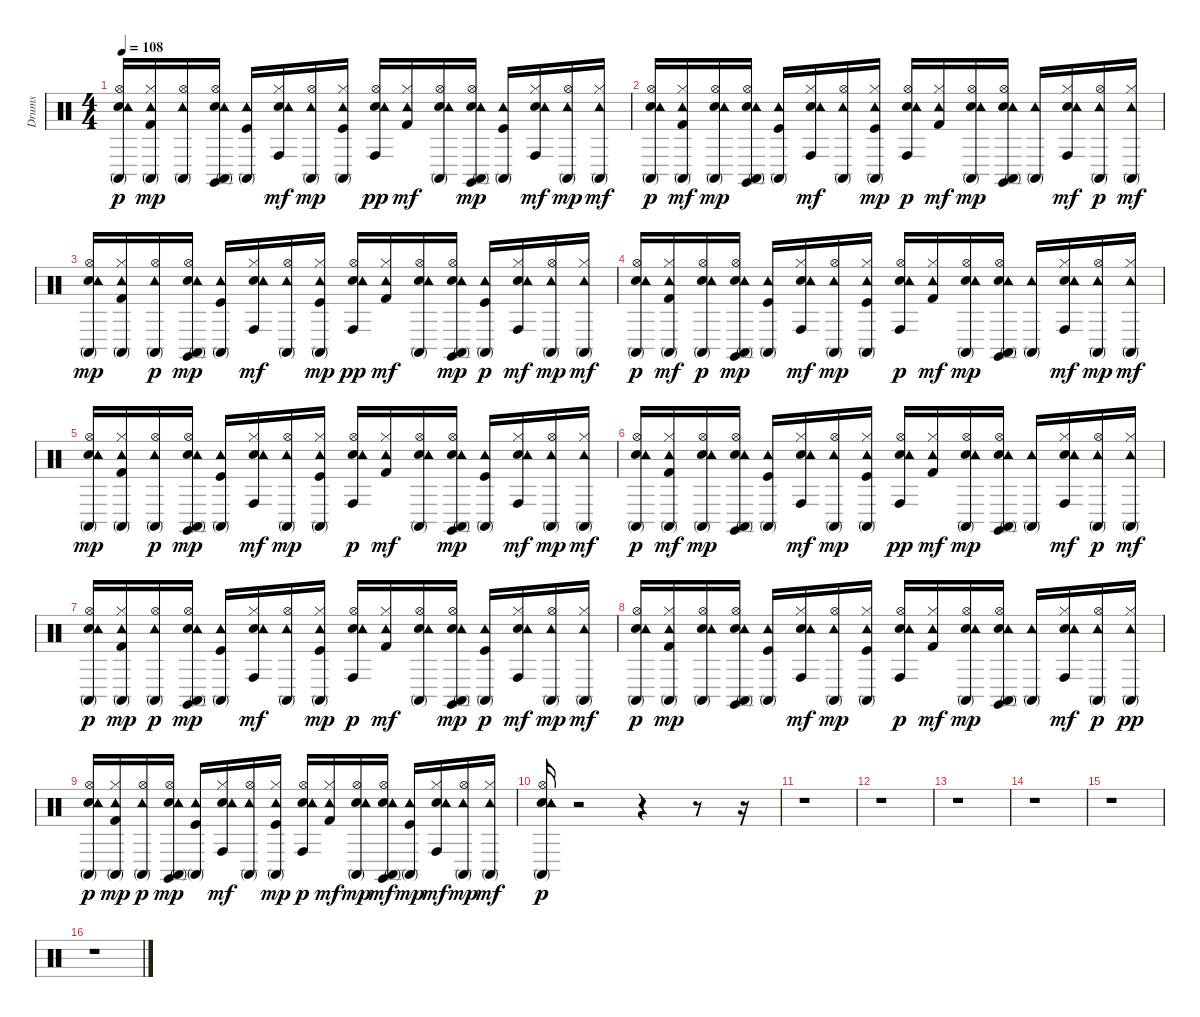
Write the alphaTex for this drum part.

\track ("Drums" "Drums") {instrument percussion}
\staff {score}
\articulation defaults
\ts (4 4)
\tempo 108
\clef neutral
\ks c
("Snare (hit) 2" "Hi-Hat (open)" "Tambourine (hit)" "Conga high (mute)").16{dy p} ("Kick (hit) 2" "Hi-Hat (closed)" "Tambourine (hit)" "Conga high (mute)").16{dy mp} ("Hi-Hat (open)" "Tambourine (hit)" "Conga high (mute)").16 ("Snare (hit) 2" "Hi-Hat (open)" "Tambourine (hit)" "Conga high (mute)" "Claves (hit)").16 ("Kick (hit)" "Tambourine (hit)" "Conga high (mute)").16 ("Snare (hit) 2" "Hi-Hat (closed)" "Tambourine (hit)" "Conga high (hit)").16{dy mf} ("Hi-Hat (open)" "Tambourine (hit)" "Conga high (mute)").16{dy mp} ("Kick (hit)" "Hi-Hat (closed)" "Tambourine (hit)" "Conga high (mute)").16 ("Snare (hit) 2" "Hi-Hat (open)" "Tambourine (hit)" "Conga high (hit)").16{dy pp} ("Kick (hit) 2" "Hi-Hat (closed)" "Tambourine (hit)").16{dy mf} ("Snare (hit) 2" "Hi-Hat (open)" "Tambourine (hit)" "Conga high (mute)").16 ("Snare (hit) 2" "Hi-Hat (open)" "Tambourine (hit)" "Conga high (mute)" "Claves (hit)").16{dy mp} ("Kick (hit)" "Tambourine (hit)" "Conga high (mute)").16 ("Snare (hit) 2" "Hi-Hat (closed)" "Tambourine (hit)" "Conga high (hit)").16{dy mf} ("Hi-Hat (open)" "Tambourine (hit)" "Conga high (mute)").16{dy mp} ("Hi-Hat (closed)" "Tambourine (hit)" "Conga high (mute)").16{dy mf} |
("Snare (hit) 2" "Hi-Hat (open)" "Tambourine (hit)" "Conga high (mute)").16{dy p} ("Kick (hit) 2" "Hi-Hat (closed)" "Tambourine (hit)" "Conga high (mute)").16{dy mf} ("Snare (hit) 2" "Hi-Hat (open)" "Tambourine (hit)" "Conga high (mute)").16{dy mp} ("Snare (hit) 2" "Hi-Hat (open)" "Tambourine (hit)" "Conga high (mute)" "Claves (hit)").16 ("Kick (hit)" "Tambourine (hit)" "Conga high (mute)").16 ("Snare (hit) 2" "Hi-Hat (closed)" "Tambourine (hit)" "Conga high (hit)").16{dy mf} ("Hi-Hat (open)" "Tambourine (hit)" "Conga high (mute)").16 ("Kick (hit)" "Hi-Hat (closed)" "Tambourine (hit)" "Conga high (mute)").16{dy mp} ("Snare (hit) 2" "Hi-Hat (open)" "Tambourine (hit)" "Conga high (hit)").16{dy p} ("Kick (hit) 2" "Hi-Hat (closed)" "Tambourine (hit)").16{dy mf} ("Snare (hit) 2" "Hi-Hat (open)" "Tambourine (hit)" "Conga high (mute)").16{dy mp} ("Snare (hit) 2" "Hi-Hat (open)" "Tambourine (hit)" "Conga high (mute)" "Claves (hit)").16 ("Tambourine (hit)" "Conga high (mute)").16 ("Snare (hit) 2" "Hi-Hat (closed)" "Tambourine (hit)" "Conga high (hit)").16{dy mf} ("Hi-Hat (open)" "Tambourine (hit)" "Conga high (mute)").16{dy p} ("Hi-Hat (closed)" "Tambourine (hit)" "Conga high (mute)").16{dy mf} |
("Snare (hit) 2" "Hi-Hat (open)" "Tambourine (hit)" "Conga high (mute)").16{dy mp} ("Kick (hit) 2" "Hi-Hat (closed)" "Tambourine (hit)" "Conga high (mute)").16 ("Hi-Hat (open)" "Tambourine (hit)" "Conga high (mute)").16{dy p} ("Snare (hit) 2" "Hi-Hat (open)" "Tambourine (hit)" "Conga high (mute)" "Claves (hit)").16{dy mp} ("Kick (hit)" "Tambourine (hit)" "Conga high (mute)").16 ("Snare (hit) 2" "Hi-Hat (closed)" "Tambourine (hit)" "Conga high (hit)").16{dy mf} ("Hi-Hat (open)" "Tambourine (hit)" "Conga high (mute)").16 ("Kick (hit)" "Hi-Hat (closed)" "Tambourine (hit)" "Conga high (mute)").16{dy mp} ("Snare (hit) 2" "Hi-Hat (open)" "Tambourine (hit)" "Conga high (hit)").16{dy pp} ("Kick (hit) 2" "Hi-Hat (closed)" "Tambourine (hit)").16{dy mf} ("Snare (hit) 2" "Hi-Hat (open)" "Tambourine (hit)" "Conga high (mute)").16 ("Snare (hit) 2" "Hi-Hat (open)" "Tambourine (hit)" "Conga high (mute)" "Claves (hit)").16{dy mp} ("Kick (hit)" "Tambourine (hit)" "Conga high (mute)").16{dy p} ("Snare (hit) 2" "Hi-Hat (closed)" "Tambourine (hit)" "Conga high (hit)").16{dy mf} ("Hi-Hat (open)" "Tambourine (hit)" "Conga high (mute)").16{dy mp} ("Hi-Hat (closed)" "Tambourine (hit)" "Conga high (mute)").16{dy mf} |
("Snare (hit) 2" "Hi-Hat (open)" "Tambourine (hit)" "Conga high (mute)").16{dy p} ("Kick (hit) 2" "Hi-Hat (closed)" "Tambourine (hit)" "Conga high (mute)").16{dy mf} ("Snare (hit) 2" "Hi-Hat (open)" "Tambourine (hit)" "Conga high (mute)").16{dy p} ("Snare (hit) 2" "Hi-Hat (open)" "Tambourine (hit)" "Conga high (mute)" "Claves (hit)").16{dy mp} ("Kick (hit)" "Tambourine (hit)" "Conga high (mute)").16 ("Snare (hit) 2" "Hi-Hat (closed)" "Tambourine (hit)" "Conga high (hit)").16{dy mf} ("Hi-Hat (open)" "Tambourine (hit)" "Conga high (mute)").16{dy mp} ("Kick (hit)" "Hi-Hat (closed)" "Tambourine (hit)" "Conga high (mute)").16 ("Snare (hit) 2" "Hi-Hat (open)" "Tambourine (hit)" "Conga high (hit)").16{dy p} ("Kick (hit) 2" "Hi-Hat (closed)" "Tambourine (hit)").16{dy mf} ("Snare (hit) 2" "Hi-Hat (open)" "Tambourine (hit)" "Conga high (mute)").16{dy mp} ("Snare (hit) 2" "Hi-Hat (open)" "Tambourine (hit)" "Conga high (mute)" "Claves (hit)").16 ("Tambourine (hit)" "Conga high (mute)").16 ("Snare (hit) 2" "Hi-Hat (closed)" "Tambourine (hit)" "Conga high (hit)").16{dy mf} ("Hi-Hat (open)" "Tambourine (hit)" "Conga high (mute)").16{dy mp} ("Hi-Hat (closed)" "Tambourine (hit)" "Conga high (mute)").16{dy mf} |
("Snare (hit) 2" "Hi-Hat (open)" "Tambourine (hit)" "Conga high (mute)").16{dy mp} ("Kick (hit) 2" "Hi-Hat (closed)" "Tambourine (hit)" "Conga high (mute)").16 ("Hi-Hat (open)" "Tambourine (hit)" "Conga high (mute)").16{dy p} ("Snare (hit) 2" "Hi-Hat (open)" "Tambourine (hit)" "Conga high (mute)" "Claves (hit)").16{dy mp} ("Kick (hit)" "Tambourine (hit)" "Conga high (mute)").16 ("Snare (hit) 2" "Hi-Hat (closed)" "Tambourine (hit)" "Conga high (hit)").16{dy mf} ("Hi-Hat (open)" "Tambourine (hit)" "Conga high (mute)").16{dy mp} ("Kick (hit)" "Hi-Hat (closed)" "Tambourine (hit)" "Conga high (mute)").16 ("Snare (hit) 2" "Hi-Hat (open)" "Tambourine (hit)" "Conga high (hit)").16{dy p} ("Kick (hit) 2" "Hi-Hat (closed)" "Tambourine (hit)").16{dy mf} ("Snare (hit) 2" "Hi-Hat (open)" "Tambourine (hit)" "Conga high (mute)").16 ("Snare (hit) 2" "Hi-Hat (open)" "Tambourine (hit)" "Conga high (mute)" "Claves (hit)").16{dy mp} ("Kick (hit)" "Tambourine (hit)" "Conga high (mute)").16 ("Snare (hit) 2" "Hi-Hat (closed)" "Tambourine (hit)" "Conga high (hit)").16{dy mf} ("Hi-Hat (open)" "Tambourine (hit)" "Conga high (mute)").16{dy mp} ("Hi-Hat (closed)" "Tambourine (hit)" "Conga high (mute)").16{dy mf} |
("Snare (hit) 2" "Hi-Hat (open)" "Tambourine (hit)" "Conga high (mute)").16{dy p} ("Kick (hit) 2" "Hi-Hat (closed)" "Tambourine (hit)" "Conga high (mute)").16{dy mf} ("Snare (hit) 2" "Hi-Hat (open)" "Tambourine (hit)" "Conga high (mute)").16{dy mp} ("Snare (hit) 2" "Hi-Hat (open)" "Tambourine (hit)" "Conga high (mute)" "Claves (hit)").16 ("Kick (hit)" "Tambourine (hit)" "Conga high (mute)").16 ("Snare (hit) 2" "Hi-Hat (closed)" "Tambourine (hit)" "Conga high (hit)").16{dy mf} ("Hi-Hat (open)" "Tambourine (hit)" "Conga high (mute)").16{dy mp} ("Kick (hit)" "Hi-Hat (closed)" "Tambourine (hit)" "Conga high (mute)").16 ("Snare (hit) 2" "Hi-Hat (open)" "Tambourine (hit)" "Conga high (hit)").16{dy pp} ("Kick (hit) 2" "Hi-Hat (closed)" "Tambourine (hit)").16{dy mf} ("Snare (hit) 2" "Hi-Hat (open)" "Tambourine (hit)" "Conga high (mute)").16{dy mp} ("Snare (hit) 2" "Hi-Hat (open)" "Tambourine (hit)" "Conga high (mute)" "Claves (hit)").16 ("Tambourine (hit)" "Conga high (mute)").16 ("Snare (hit) 2" "Hi-Hat (closed)" "Tambourine (hit)" "Conga high (hit)").16{dy mf} ("Hi-Hat (open)" "Tambourine (hit)" "Conga high (mute)").16{dy p} ("Hi-Hat (closed)" "Tambourine (hit)" "Conga high (mute)").16{dy mf} |
("Snare (hit) 2" "Hi-Hat (open)" "Tambourine (hit)" "Conga high (mute)").16{dy p} ("Kick (hit) 2" "Hi-Hat (closed)" "Tambourine (hit)" "Conga high (mute)").16{dy mp} ("Hi-Hat (open)" "Tambourine (hit)" "Conga high (mute)").16{dy p} ("Snare (hit) 2" "Hi-Hat (open)" "Tambourine (hit)" "Conga high (mute)" "Claves (hit)").16{dy mp} ("Kick (hit)" "Tambourine (hit)" "Conga high (mute)").16 ("Snare (hit) 2" "Hi-Hat (closed)" "Tambourine (hit)" "Conga high (hit)").16{dy mf} ("Hi-Hat (open)" "Tambourine (hit)" "Conga high (mute)").16 ("Kick (hit)" "Hi-Hat (closed)" "Tambourine (hit)" "Conga high (mute)").16{dy mp} ("Snare (hit) 2" "Hi-Hat (open)" "Tambourine (hit)" "Conga high (hit)").16{dy p} ("Kick (hit) 2" "Hi-Hat (closed)" "Tambourine (hit)").16{dy mf} ("Snare (hit) 2" "Hi-Hat (open)" "Tambourine (hit)" "Conga high (mute)").16 ("Snare (hit) 2" "Hi-Hat (open)" "Tambourine (hit)" "Conga high (mute)" "Claves (hit)").16{dy mp} ("Kick (hit)" "Tambourine (hit)" "Conga high (mute)").16{dy p} ("Snare (hit) 2" "Hi-Hat (closed)" "Tambourine (hit)" "Conga high (hit)").16{dy mf} ("Hi-Hat (open)" "Tambourine (hit)" "Conga high (mute)").16{dy mp} ("Hi-Hat (closed)" "Tambourine (hit)" "Conga high (mute)").16{dy mf} |
("Snare (hit) 2" "Hi-Hat (open)" "Tambourine (hit)" "Conga high (mute)").16{dy p} ("Kick (hit) 2" "Hi-Hat (closed)" "Tambourine (hit)" "Conga high (mute)").16{dy mp} ("Snare (hit) 2" "Hi-Hat (open)" "Tambourine (hit)" "Conga high (mute)").16 ("Snare (hit) 2" "Hi-Hat (open)" "Tambourine (hit)" "Conga high (mute)" "Claves (hit)").16 ("Kick (hit)" "Tambourine (hit)" "Conga high (mute)").16 ("Snare (hit) 2" "Hi-Hat (closed)" "Tambourine (hit)" "Conga high (hit)").16{dy mf} ("Hi-Hat (open)" "Tambourine (hit)" "Conga high (mute)").16{dy mp} ("Kick (hit)" "Hi-Hat (closed)" "Tambourine (hit)" "Conga high (mute)").16 ("Snare (hit) 2" "Hi-Hat (open)" "Tambourine (hit)" "Conga high (hit)").16{dy p} ("Kick (hit) 2" "Hi-Hat (closed)" "Tambourine (hit)").16{dy mf} ("Snare (hit) 2" "Hi-Hat (open)" "Tambourine (hit)" "Conga high (mute)").16{dy mp} ("Snare (hit) 2" "Hi-Hat (open)" "Tambourine (hit)" "Conga high (mute)" "Claves (hit)").16 ("Tambourine (hit)" "Conga high (mute)").16 ("Snare (hit) 2" "Hi-Hat (closed)" "Tambourine (hit)" "Conga high (hit)").16{dy mf} ("Hi-Hat (open)" "Tambourine (hit)" "Conga high (mute)").16{dy p} ("Hi-Hat (closed)" "Tambourine (hit)" "Conga high (mute)").16{dy pp} |
("Snare (hit) 2" "Hi-Hat (open)" "Tambourine (hit)" "Conga high (mute)").16{dy p} ("Kick (hit) 2" "Hi-Hat (closed)" "Tambourine (hit)" "Conga high (mute)").16{dy mp} ("Hi-Hat (open)" "Tambourine (hit)" "Conga high (mute)").16{dy p} ("Snare (hit) 2" "Hi-Hat (open)" "Tambourine (hit)" "Conga high (mute)" "Claves (hit)").16{dy mp} ("Kick (hit)" "Tambourine (hit)" "Conga high (mute)").16 ("Snare (hit) 2" "Hi-Hat (closed)" "Tambourine (hit)" "Conga high (hit)").16{dy mf} ("Hi-Hat (open)" "Tambourine (hit)" "Conga high (mute)").16 ("Kick (hit)" "Hi-Hat (closed)" "Tambourine (hit)" "Conga high (mute)").16{dy mp} ("Snare (hit) 2" "Hi-Hat (open)" "Tambourine (hit)" "Conga high (hit)").16{dy p} ("Kick (hit) 2" "Hi-Hat (closed)" "Tambourine (hit)").16{dy mf} ("Snare (hit) 2" "Hi-Hat (open)" "Tambourine (hit)" "Conga high (mute)").16{dy mp} ("Snare (hit) 2" "Hi-Hat (open)" "Tambourine (hit)" "Conga high (mute)" "Claves (hit)").16{dy mf} ("Kick (hit)" "Tambourine (hit)" "Conga high (mute)").16{dy mp} ("Snare (hit) 2" "Hi-Hat (closed)" "Tambourine (hit)" "Conga high (hit)").16{dy mf} ("Hi-Hat (open)" "Tambourine (hit)" "Conga high (mute)").16{dy mp} ("Hi-Hat (closed)" "Tambourine (hit)" "Conga high (mute)").16{dy mf} |
("Snare (hit) 2" "Hi-Hat (open)" "Tambourine (hit)" "Conga high (mute)").16{dy p} r.2 r.4 r.8 r.16 |
r.1 |
r.1 |
r.1 |
r.1 |
r.1 |
r.1
